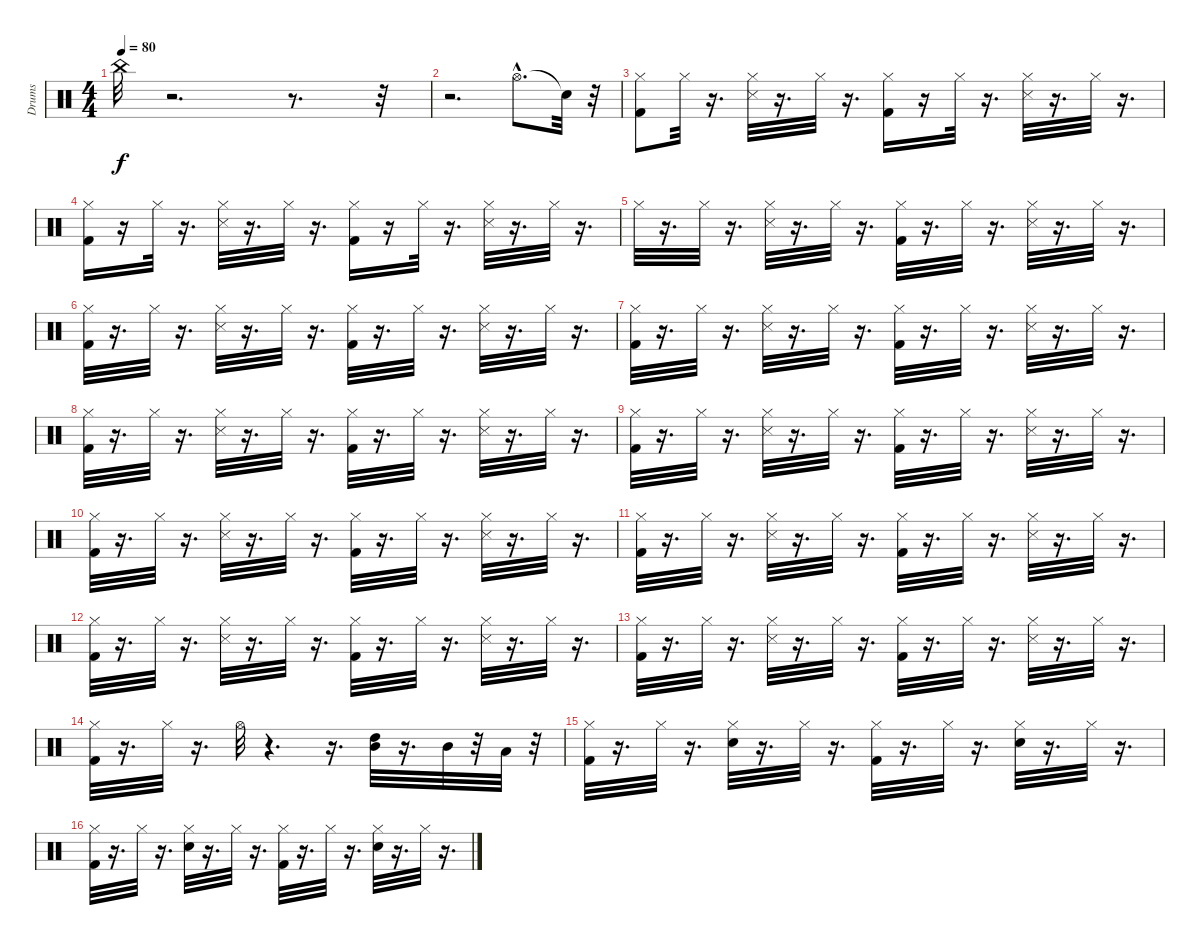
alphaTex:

\track ("Drums" "Drums") {instrument percussion}
\staff {score}
\articulation defaults
\ts (4 4)
\tempo 80
\clef neutral
\ks c "China (hit)".32{dy f}
r.2{d} r.8{d} r.32 |
r.2{d} "Hi-Hat (open)"{hac}.8{d} "Snare (hit)"{t}.32 r.32 |
("Kick (hit) 2" "Hi-Hat (closed)").8 "Hi-Hat (closed)".32 r.16{d} ("Snare (side stick) 3" "Hi-Hat (closed)").32 r.16{d} "Hi-Hat (closed)".32 r.16{d} ("Kick (hit) 2" "Hi-Hat (closed)").16 r.16 "Hi-Hat (closed)".32 r.16{d} ("Snare (side stick) 3" "Hi-Hat (closed)").32 r.16{d} "Hi-Hat (closed)".32 r.16{d} |
("Kick (hit) 2" "Hi-Hat (closed)").16 r.16 "Hi-Hat (closed)".32 r.16{d} ("Snare (side stick) 3" "Hi-Hat (closed)").32 r.16{d} "Hi-Hat (closed)".32 r.16{d} ("Kick (hit) 2" "Hi-Hat (closed)").16 r.16 "Hi-Hat (closed)".32 r.16{d} ("Snare (side stick) 3" "Hi-Hat (closed)").32 r.16{d} "Hi-Hat (closed)".32 r.16{d} |
"Hi-Hat (closed)".32 r.16{d} "Hi-Hat (closed)".32 r.16{d} ("Snare (side stick) 3" "Hi-Hat (closed)").32 r.16{d} "Hi-Hat (closed)".32 r.16{d} ("Kick (hit) 2" "Hi-Hat (closed)").32 r.16{d} "Hi-Hat (closed)".32 r.16{d} ("Hi-Hat (closed)" "Snare (side stick) 3").32 r.16{d} "Hi-Hat (closed)".32 r.16{d} |
("Kick (hit) 2" "Hi-Hat (closed)").32 r.16{d} "Hi-Hat (closed)".32 r.16{d} ("Snare (side stick) 3" "Hi-Hat (closed)").32 r.16{d} "Hi-Hat (closed)".32 r.16{d} ("Kick (hit) 2" "Hi-Hat (closed)").32 r.16{d} "Hi-Hat (closed)".32 r.16{d} ("Snare (side stick) 3" "Hi-Hat (closed)").32 r.16{d} "Hi-Hat (closed)".32 r.16{d} |
("Kick (hit) 2" "Hi-Hat (closed)").32 r.16{d} "Hi-Hat (closed)".32 r.16{d} ("Snare (side stick) 3" "Hi-Hat (closed)").32 r.16{d} "Hi-Hat (closed)".32 r.16{d} ("Kick (hit) 2" "Hi-Hat (closed)").32 r.16{d} "Hi-Hat (closed)".32 r.16{d} ("Hi-Hat (closed)" "Snare (side stick) 3").32 r.16{d} "Hi-Hat (closed)".32 r.16{d} |
("Kick (hit) 2" "Hi-Hat (closed)").32 r.16{d} "Hi-Hat (closed)".32 r.16{d} ("Snare (side stick) 3" "Hi-Hat (closed)").32 r.16{d} "Hi-Hat (closed)".32 r.16{d} ("Kick (hit) 2" "Hi-Hat (closed)").32 r.16{d} "Hi-Hat (closed)".32 r.16{d} ("Snare (side stick) 3" "Hi-Hat (closed)").32 r.16{d} "Hi-Hat (closed)".32 r.16{d} |
("Kick (hit) 2" "Hi-Hat (closed)").32 r.16{d} "Hi-Hat (closed)".32 r.16{d} ("Snare (side stick) 3" "Hi-Hat (closed)").32 r.16{d} "Hi-Hat (closed)".32 r.16{d} ("Kick (hit) 2" "Hi-Hat (closed)").32 r.16{d} "Hi-Hat (closed)".32 r.16{d} ("Snare (side stick) 3" "Hi-Hat (closed)").32 r.16{d} "Hi-Hat (closed)".32 r.16{d} |
("Kick (hit) 2" "Hi-Hat (closed)").32 r.16{d} "Hi-Hat (closed)".32 r.16{d} ("Snare (side stick) 3" "Hi-Hat (closed)").32 r.16{d} "Hi-Hat (closed)".32 r.16{d} ("Kick (hit) 2" "Hi-Hat (closed)").32 r.16{d} "Hi-Hat (closed)".32 r.16{d} ("Snare (side stick) 3" "Hi-Hat (closed)").32 r.16{d} "Hi-Hat (closed)".32 r.16{d} |
("Kick (hit) 2" "Hi-Hat (closed)").32 r.16{d} "Hi-Hat (closed)".32 r.16{d} ("Snare (side stick) 3" "Hi-Hat (closed)").32 r.16{d} "Hi-Hat (closed)".32 r.16{d} ("Kick (hit) 2" "Hi-Hat (closed)").32 r.16{d} "Hi-Hat (closed)".32 r.16{d} ("Snare (side stick) 3" "Hi-Hat (closed)").32 r.16{d} "Hi-Hat (closed)".32 r.16{d} |
("Kick (hit) 2" "Hi-Hat (closed)").32 r.16{d} "Hi-Hat (closed)".32 r.16{d} ("Snare (side stick) 3" "Hi-Hat (closed)").32 r.16{d} "Hi-Hat (closed)".32 r.16{d} ("Kick (hit) 2" "Hi-Hat (closed)").32 r.16{d} "Hi-Hat (closed)".32 r.16{d} ("Snare (side stick) 3" "Hi-Hat (closed)").32 r.16{d} "Hi-Hat (closed)".32 r.16{d} |
("Kick (hit) 2" "Hi-Hat (closed)").32 r.16{d} "Hi-Hat (closed)".32 r.16{d} ("Snare (side stick) 3" "Hi-Hat (closed)").32 r.16{d} "Hi-Hat (closed)".32 r.16{d} ("Kick (hit) 2" "Hi-Hat (closed)").32 r.16{d} "Hi-Hat (closed)".32 r.16{d} ("Snare (side stick) 3" "Hi-Hat (closed)").32 r.16{d} "Hi-Hat (closed)".32 r.16{d} |
("Kick (hit) 2" "Hi-Hat (closed)").32 r.16{d} "Hi-Hat (closed)".32 r.16{d} "Hi-Hat (open)".32 r.4{d} r.16{d} ("High Tom (hit)" "Mid Tom (hit)").32 r.16{d} "Mid Tom (hit)".32 r.32 "Low Tom (hit)".32 r.32 |
("Kick (hit) 2" "Hi-Hat (closed)").32 r.16{d} "Hi-Hat (closed)".32 r.16{d} ("Hi-Hat (closed)" "Snare (hit) 2").32 r.16{d} "Hi-Hat (closed)".32 r.16{d} ("Hi-Hat (closed)" "Kick (hit) 2").32 r.16{d} "Hi-Hat (closed)".32 r.16{d} ("Hi-Hat (closed)" "Snare (hit) 2").32 r.16{d} "Hi-Hat (closed)".32 r.16{d} |
("Hi-Hat (closed)" "Kick (hit) 2").32 r.16{d} "Hi-Hat (closed)".32 r.16{d} ("Hi-Hat (closed)" "Snare (hit) 2").32 r.16{d} "Hi-Hat (closed)".32 r.16{d} ("Hi-Hat (closed)" "Kick (hit) 2").32 r.16{d} "Hi-Hat (closed)".32 r.16{d} ("Hi-Hat (closed)" "Snare (hit) 2").32 r.16{d} "Hi-Hat (closed)".32 r.16{d}
